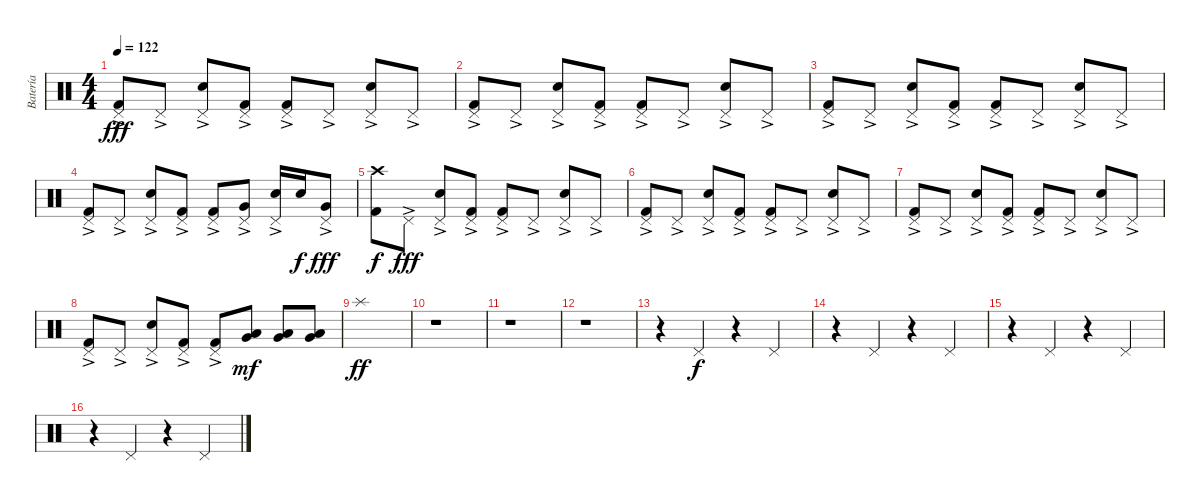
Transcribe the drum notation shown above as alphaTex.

\track ("Batería" "Batería") {instrument percussion}
\staff {score}
\articulation defaults
\ts (4 4)
\tempo 122
\clef neutral
\ks c
("Pedal Hi-Hat (hit)"{ac} "Kick (hit) 2").8{dy fff} "Pedal Hi-Hat (hit)"{ac}.8 ("Pedal Hi-Hat (hit)"{ac} "Electric Snare (hit)").8 ("Pedal Hi-Hat (hit)"{ac} "Kick (hit) 2").8 ("Pedal Hi-Hat (hit)"{ac} "Kick (hit) 2").8 "Pedal Hi-Hat (hit)"{ac}.8 ("Pedal Hi-Hat (hit)"{ac} "Electric Snare (hit)").8 "Pedal Hi-Hat (hit)"{ac}.8 |
("Pedal Hi-Hat (hit)"{ac} "Kick (hit) 2").8 "Pedal Hi-Hat (hit)"{ac}.8 ("Pedal Hi-Hat (hit)"{ac} "Electric Snare (hit)").8 ("Pedal Hi-Hat (hit)"{ac} "Kick (hit) 2").8 ("Pedal Hi-Hat (hit)"{ac} "Kick (hit) 2").8 "Pedal Hi-Hat (hit)"{ac}.8 ("Pedal Hi-Hat (hit)"{ac} "Electric Snare (hit)").8 "Pedal Hi-Hat (hit)"{ac}.8 |
("Pedal Hi-Hat (hit)"{ac} "Kick (hit) 2").8 "Pedal Hi-Hat (hit)"{ac}.8 ("Pedal Hi-Hat (hit)"{ac} "Electric Snare (hit)").8 ("Pedal Hi-Hat (hit)"{ac} "Kick (hit) 2").8 ("Pedal Hi-Hat (hit)"{ac} "Kick (hit) 2").8 "Pedal Hi-Hat (hit)"{ac}.8 ("Pedal Hi-Hat (hit)"{ac} "Electric Snare (hit)").8 "Pedal Hi-Hat (hit)"{ac}.8 |
("Pedal Hi-Hat (hit)"{ac} "Kick (hit) 2").8 "Pedal Hi-Hat (hit)"{ac}.8 ("Pedal Hi-Hat (hit)"{ac} "Electric Snare (hit)").8 ("Pedal Hi-Hat (hit)"{ac} "Kick (hit) 2").8 ("Pedal Hi-Hat (hit)"{ac} "Kick (hit) 2").8 ("Pedal Hi-Hat (hit)"{ac} "Very Low Tom (hit)").8 ("Pedal Hi-Hat (hit)"{ac} "Electric Snare (hit)").16 "Electric Snare (hit)".16{dy f} ("Pedal Hi-Hat (hit)"{ac} "Very Low Tom (hit)").8{dy fff} |
("Crash high (hit)" "Kick (hit) 2").8{dy f} "Pedal Hi-Hat (hit)"{ac}.8{dy fff} ("Pedal Hi-Hat (hit)"{ac} "Electric Snare (hit)").8 ("Pedal Hi-Hat (hit)"{ac} "Kick (hit) 2").8 ("Pedal Hi-Hat (hit)"{ac} "Kick (hit) 2").8 "Pedal Hi-Hat (hit)"{ac}.8 ("Pedal Hi-Hat (hit)"{ac} "Electric Snare (hit)").8 "Pedal Hi-Hat (hit)"{ac}.8 |
("Pedal Hi-Hat (hit)"{ac} "Kick (hit) 2").8 "Pedal Hi-Hat (hit)"{ac}.8 ("Pedal Hi-Hat (hit)"{ac} "Electric Snare (hit)").8 ("Pedal Hi-Hat (hit)"{ac} "Kick (hit) 2").8 ("Pedal Hi-Hat (hit)"{ac} "Kick (hit) 2").8 "Pedal Hi-Hat (hit)"{ac}.8 ("Pedal Hi-Hat (hit)"{ac} "Electric Snare (hit)").8 "Pedal Hi-Hat (hit)"{ac}.8 |
("Pedal Hi-Hat (hit)"{ac} "Kick (hit) 2").8 "Pedal Hi-Hat (hit)"{ac}.8 ("Pedal Hi-Hat (hit)"{ac} "Electric Snare (hit)").8 ("Pedal Hi-Hat (hit)"{ac} "Kick (hit) 2").8 ("Pedal Hi-Hat (hit)"{ac} "Kick (hit) 2").8 "Pedal Hi-Hat (hit)"{ac}.8 ("Pedal Hi-Hat (hit)"{ac} "Electric Snare (hit)").8 "Pedal Hi-Hat (hit)"{ac}.8 |
("Pedal Hi-Hat (hit)"{ac} "Kick (hit) 2").8 "Pedal Hi-Hat (hit)"{ac}.8 ("Pedal Hi-Hat (hit)"{ac} "Electric Snare (hit)").8 ("Pedal Hi-Hat (hit)"{ac} "Kick (hit) 2").8 ("Pedal Hi-Hat (hit)"{ac} "Kick (hit) 2").8 ("Low Floor Tom (hit)" "Very Low Tom (hit)").8{dy mf} ("Low Floor Tom (hit)" "Very Low Tom (hit)").8 ("Low Floor Tom (hit)" "Very Low Tom (hit)").8 |
"Splash (hit)".1{dy ff} |
r.1 |
r.1 |
r.1 |
r.4 "Pedal Hi-Hat (hit)".4{dy f} r.4 "Pedal Hi-Hat (hit)".4 |
r.4 "Pedal Hi-Hat (hit)".4 r.4 "Pedal Hi-Hat (hit)".4 |
r.4 "Pedal Hi-Hat (hit)".4 r.4 "Pedal Hi-Hat (hit)".4 |
r.4 "Pedal Hi-Hat (hit)".4 r.4 "Pedal Hi-Hat (hit)".4
